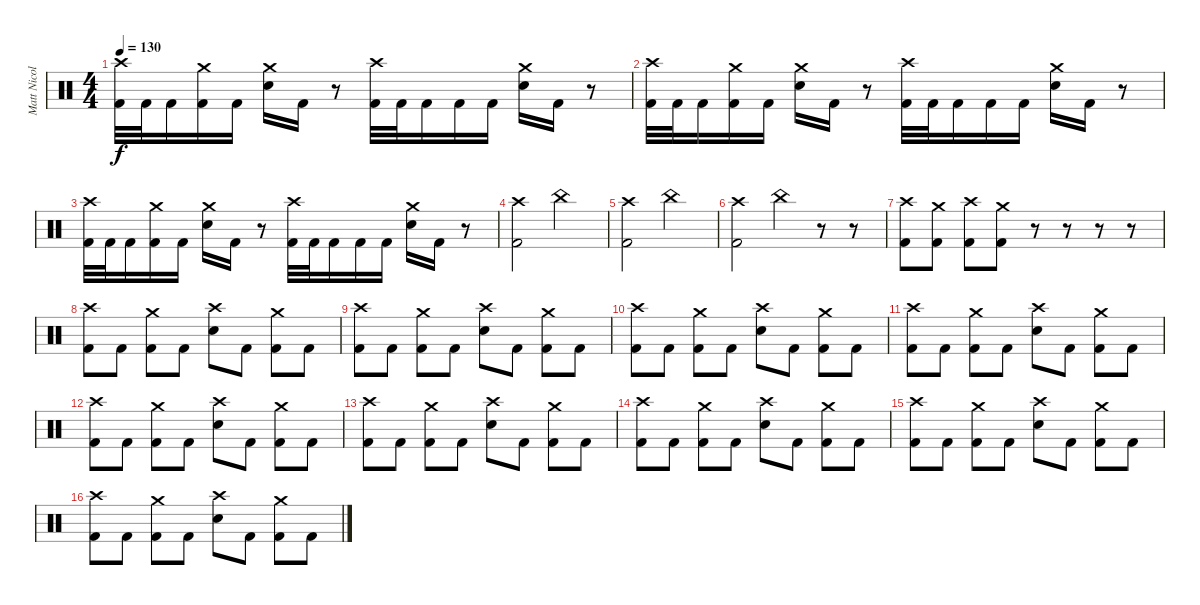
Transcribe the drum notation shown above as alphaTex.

\track ("Matt Nicols" "Matt Nicol") {instrument percussion}
\staff {score}
\articulation defaults
\ts (4 4)
\tempo 130
\clef neutral
\ks c
("Crash high (hit)" "Kick (hit) 2").32{dy f} "Kick (hit) 2".32 "Kick (hit) 2".16 ("Crash medium (hit)" "Kick (hit) 2").16 "Kick (hit) 2".16 ("Snare (hit) 2" "Crash medium (hit)").16 "Kick (hit) 2".16 r.8 ("Crash high (hit)" "Kick (hit) 2").32 "Kick (hit) 2".32 "Kick (hit) 2".16 "Kick (hit) 2".16 "Kick (hit) 2".16 ("Crash medium (hit)" "Snare (hit) 2").16 "Kick (hit) 2".16 r.8 |
("Crash high (hit)" "Kick (hit) 2").32 "Kick (hit) 2".32 "Kick (hit) 2".16 ("Crash medium (hit)" "Kick (hit) 2").16 "Kick (hit) 2".16 ("Snare (hit) 2" "Crash medium (hit)").16 "Kick (hit) 2".16 r.8 ("Crash high (hit)" "Kick (hit) 2").32 "Kick (hit) 2".32 "Kick (hit) 2".16 "Kick (hit) 2".16 "Kick (hit) 2".16 ("Crash medium (hit)" "Snare (hit) 2").16 "Kick (hit) 2".16 r.8 |
("Crash high (hit)" "Kick (hit) 2").32 "Kick (hit) 2".32 "Kick (hit) 2".16 ("Crash medium (hit)" "Kick (hit) 2").16 "Kick (hit) 2".16 ("Snare (hit) 2" "Crash medium (hit)").16 "Kick (hit) 2".16 r.8 ("Crash high (hit)" "Kick (hit) 2").32 "Kick (hit) 2".32 "Kick (hit) 2".16 "Kick (hit) 2".16 "Kick (hit) 2".16 ("Crash medium (hit)" "Snare (hit) 2").16 "Kick (hit) 2".16 r.8 |
("Crash high (hit)" "Kick (hit) 2").2 "China (hit)".2 |
("Kick (hit) 2" "Crash high (hit)").2 "China (hit)".2 |
("Crash high (hit)" "Kick (hit) 2").2 "China (hit)".4 r.8 r.8 |
("Crash high (hit)" "Kick (hit) 2").8 ("Crash medium (hit)" "Kick (hit) 2").8 ("Crash high (hit)" "Kick (hit) 2").8 ("Crash medium (hit)" "Kick (hit) 2").8 r.8 r.8 r.8 r.8 |
("Crash high (hit)" "Kick (hit) 2").8 "Kick (hit) 2".8 ("Crash medium (hit)" "Kick (hit) 2").8 "Kick (hit) 2".8 ("Crash high (hit)" "Snare (hit) 2").8 "Kick (hit) 2".8 ("Crash medium (hit)" "Kick (hit) 2").8 "Kick (hit) 2".8 |
("Crash high (hit)" "Kick (hit) 2").8 "Kick (hit) 2".8 ("Crash medium (hit)" "Kick (hit) 2").8 "Kick (hit) 2".8 ("Crash high (hit)" "Snare (hit) 2").8 "Kick (hit) 2".8 ("Crash medium (hit)" "Kick (hit) 2").8 "Kick (hit) 2".8 |
("Crash high (hit)" "Kick (hit) 2").8 "Kick (hit) 2".8 ("Crash medium (hit)" "Kick (hit) 2").8 "Kick (hit) 2".8 ("Crash high (hit)" "Snare (hit) 2").8 "Kick (hit) 2".8 ("Crash medium (hit)" "Kick (hit) 2").8 "Kick (hit) 2".8 |
("Crash high (hit)" "Kick (hit) 2").8 "Kick (hit) 2".8 ("Crash medium (hit)" "Kick (hit) 2").8 "Kick (hit) 2".8 ("Crash high (hit)" "Snare (hit) 2").8 "Kick (hit) 2".8 ("Crash medium (hit)" "Kick (hit) 2").8 "Kick (hit) 2".8 |
("Crash high (hit)" "Kick (hit) 2").8 "Kick (hit) 2".8 ("Crash medium (hit)" "Kick (hit) 2").8 "Kick (hit) 2".8 ("Crash high (hit)" "Snare (hit) 2").8 "Kick (hit) 2".8 ("Crash medium (hit)" "Kick (hit) 2").8 "Kick (hit) 2".8 |
("Crash high (hit)" "Kick (hit) 2").8 "Kick (hit) 2".8 ("Crash medium (hit)" "Kick (hit) 2").8 "Kick (hit) 2".8 ("Crash high (hit)" "Snare (hit) 2").8 "Kick (hit) 2".8 ("Crash medium (hit)" "Kick (hit) 2").8 "Kick (hit) 2".8 |
("Crash high (hit)" "Kick (hit) 2").8 "Kick (hit) 2".8 ("Crash medium (hit)" "Kick (hit) 2").8 "Kick (hit) 2".8 ("Crash high (hit)" "Snare (hit) 2").8 "Kick (hit) 2".8 ("Crash medium (hit)" "Kick (hit) 2").8 "Kick (hit) 2".8 |
("Crash high (hit)" "Kick (hit) 2").8 "Kick (hit) 2".8 ("Crash medium (hit)" "Kick (hit) 2").8 "Kick (hit) 2".8 ("Crash high (hit)" "Snare (hit) 2").8 "Kick (hit) 2".8 ("Crash medium (hit)" "Kick (hit) 2").8 "Kick (hit) 2".8 |
("Crash high (hit)" "Kick (hit) 2").8 "Kick (hit) 2".8 ("Crash medium (hit)" "Kick (hit) 2").8 "Kick (hit) 2".8 ("Crash high (hit)" "Snare (hit) 2").8 "Kick (hit) 2".8 ("Crash medium (hit)" "Kick (hit) 2").8 "Kick (hit) 2".8
